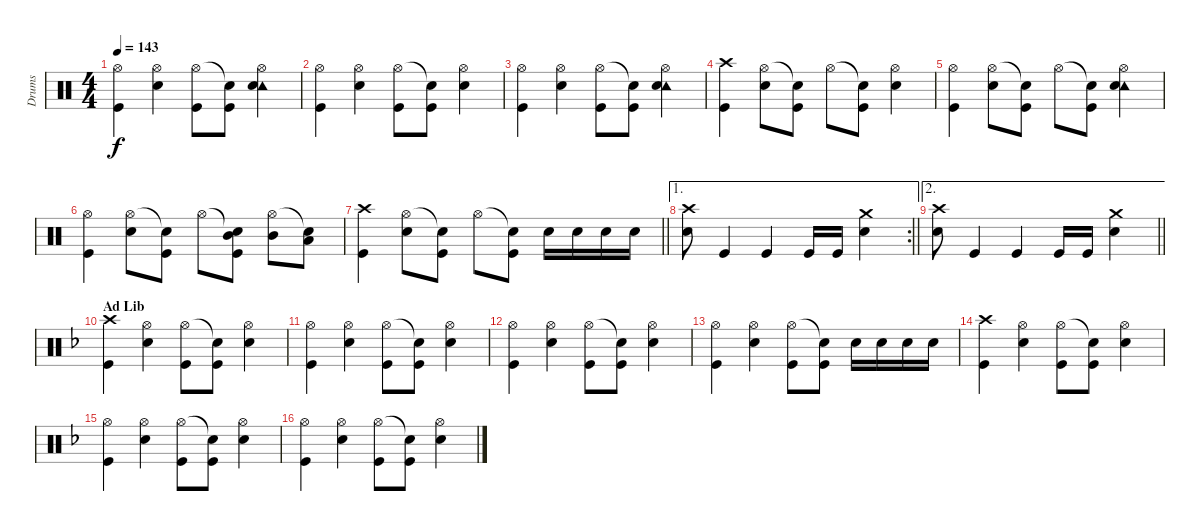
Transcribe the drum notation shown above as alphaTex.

\track ("Drums" "Drums") {instrument percussion}
\staff {score}
\articulation defaults
\ts (4 4)
\tempo 143
\clef neutral
\ks c
("Hi-Hat (open)" "Kick (hit)").4{dy f} ("Hi-Hat (open)" "Electric Snare (hit)").4 ("Hi-Hat (open)" "Kick (hit)").8 ("Snare (hit)"{t} "Kick (hit)").8 ("Tambourine (hit)" "Hi-Hat (open)" "Electric Snare (hit)").4 |
("Hi-Hat (open)" "Kick (hit)").4 ("Hi-Hat (open)" "Electric Snare (hit)").4 ("Hi-Hat (open)" "Kick (hit)").8 ("Snare (hit)"{t} "Kick (hit)").8 ("Hi-Hat (open)" "Electric Snare (hit)").4 |
("Hi-Hat (open)" "Kick (hit)").4 ("Hi-Hat (open)" "Electric Snare (hit)").4 ("Hi-Hat (open)" "Kick (hit)").8 ("Snare (hit)"{t} "Kick (hit)").8 ("Tambourine (hit)" "Hi-Hat (open)" "Electric Snare (hit)").4 |
("Crash high (hit)" "Kick (hit)").4 ("Hi-Hat (open)" "Electric Snare (hit)").8 ("Snare (hit)"{t} "Kick (hit)").8 "Hi-Hat (open)".8 ("Snare (hit)"{t} "Kick (hit)").8 ("Hi-Hat (open)" "Electric Snare (hit)").4 |
("Hi-Hat (open)" "Kick (hit)").4 ("Hi-Hat (open)" "Electric Snare (hit)").8 ("Snare (hit)"{t} "Kick (hit)").8 "Hi-Hat (open)".8 ("Snare (hit)"{t} "Kick (hit)").8 ("Tambourine (hit)" "Hi-Hat (open)" "Electric Snare (hit)").4 |
("Hi-Hat (open)" "Kick (hit)").4 ("Hi-Hat (open)" "Electric Snare (hit)").8 ("Snare (hit)"{t} "Kick (hit)").8 "Hi-Hat (open)".8 ("Snare (hit)"{t} "Mid Tom (hit)" "Kick (hit)").8 ("Hi-Hat (open)" "Mid Tom (hit)").8 ("Snare (hit)"{t} "Low Tom (hit)").8 |
\barLineRight lightlight
("Crash high (hit)" "Kick (hit)").4 ("Hi-Hat (open)" "Electric Snare (hit)").8 ("Snare (hit)"{t} "Kick (hit)").8 "Hi-Hat (open)".8 ("Snare (hit)"{t} "Kick (hit)").8 "Electric Snare (hit)".16 "Electric Snare (hit)".16 "Electric Snare (hit)".16 "Electric Snare (hit)".16 |
\ae 1
\rc 2
\barLineRight lightlight
("Crash high (hit)" "Electric Snare (hit)").8 "Kick (hit)".4 "Kick (hit)".4 "Kick (hit)".16 "Kick (hit)".16 ("Crash medium (hit)" "Electric Snare (hit)").4 |
\ae 2
\barLineRight lightlight
("Crash high (hit)" "Electric Snare (hit)").8 "Kick (hit)".4 "Kick (hit)".4 "Kick (hit)".16 "Kick (hit)".16 ("Crash medium (hit)" "Electric Snare (hit)").4 |
\section ("" "Ad Lib")
\ks f
("Crash high (hit)" "Kick (hit)").4 ("Hi-Hat (open)" "Electric Snare (hit)").4 ("Hi-Hat (open)" "Kick (hit)").8 ("Snare (hit)"{t} "Kick (hit)").8 ("Hi-Hat (open)" "Electric Snare (hit)").4 |
("Hi-Hat (open)" "Kick (hit)").4 ("Hi-Hat (open)" "Electric Snare (hit)").4 ("Hi-Hat (open)" "Kick (hit)").8 ("Snare (hit)"{t} "Kick (hit)").8 ("Hi-Hat (open)" "Electric Snare (hit)").4 |
("Hi-Hat (open)" "Kick (hit)").4 ("Hi-Hat (open)" "Electric Snare (hit)").4 ("Hi-Hat (open)" "Kick (hit)").8 ("Snare (hit)"{t} "Kick (hit)").8 ("Hi-Hat (open)" "Electric Snare (hit)").4 |
("Hi-Hat (open)" "Kick (hit)").4 ("Hi-Hat (open)" "Electric Snare (hit)").4 ("Hi-Hat (open)" "Kick (hit)").8 ("Snare (hit)"{t} "Kick (hit)").8 "Electric Snare (hit)".16 "Electric Snare (hit)".16 "Electric Snare (hit)".16 "Electric Snare (hit)".16 |
("Crash high (hit)" "Kick (hit)").4 ("Hi-Hat (open)" "Electric Snare (hit)").4 ("Hi-Hat (open)" "Kick (hit)").8 ("Snare (hit)"{t} "Kick (hit)").8 ("Hi-Hat (open)" "Electric Snare (hit)").4 |
("Hi-Hat (open)" "Kick (hit)").4 ("Hi-Hat (open)" "Electric Snare (hit)").4 ("Hi-Hat (open)" "Kick (hit)").8 ("Snare (hit)"{t} "Kick (hit)").8 ("Hi-Hat (open)" "Electric Snare (hit)").4 |
("Hi-Hat (open)" "Kick (hit)").4 ("Hi-Hat (open)" "Electric Snare (hit)").4 ("Hi-Hat (open)" "Kick (hit)").8 ("Snare (hit)"{t} "Kick (hit)").8 ("Hi-Hat (open)" "Electric Snare (hit)").4
